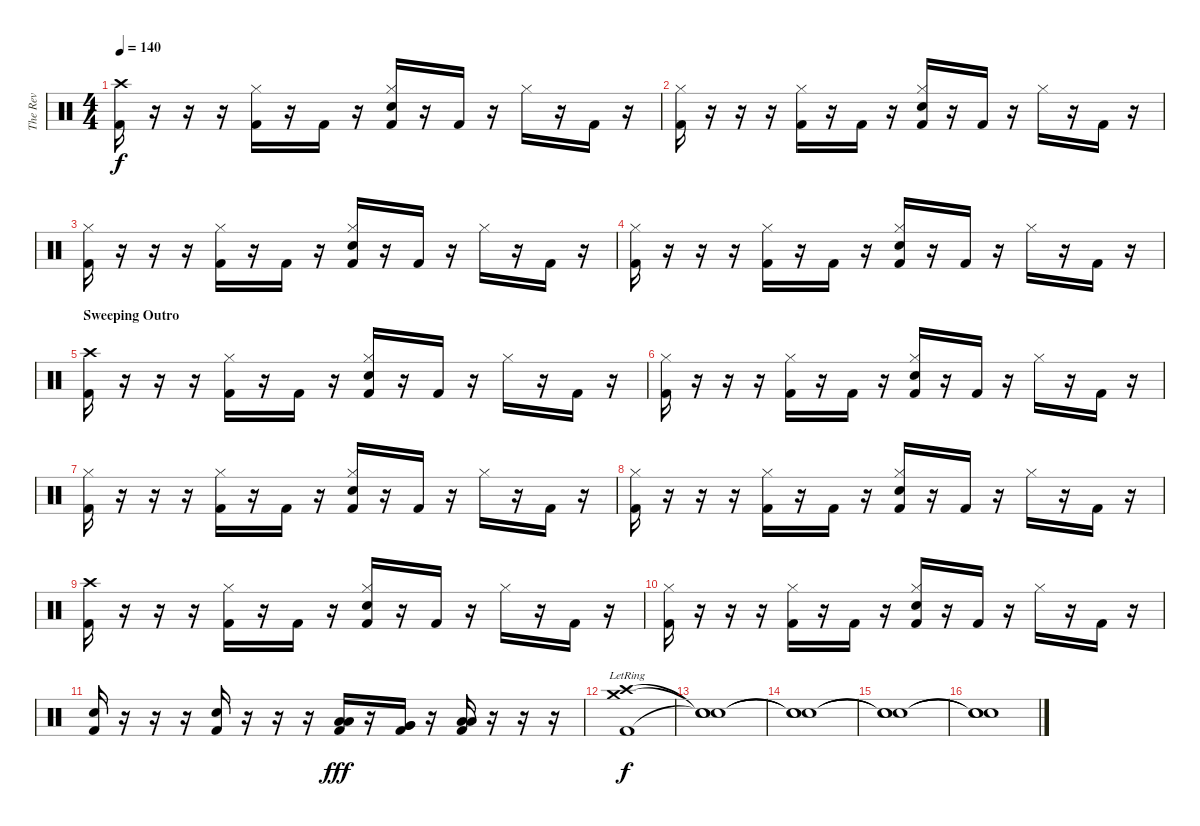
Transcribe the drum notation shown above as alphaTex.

\track ("The Rev" "The Rev") {instrument percussion}
\staff {score}
\articulation defaults
\ts (4 4)
\tempo 140
\clef neutral
\ks c
("Crash high (hit)" "Kick (hit) 2").16{dy f} r.16 r.16 r.16 ("Hi-Hat (closed)" "Kick (hit) 2").16 r.16 "Kick (hit) 2".16 r.16 ("Hi-Hat (closed)" "Electric Snare (hit)" "Kick (hit) 2").16 r.16 "Kick (hit) 2".16 r.16 "Hi-Hat (closed)".16 r.16 "Kick (hit) 2".16 r.16 |
("Hi-Hat (closed)" "Kick (hit) 2").16 r.16 r.16 r.16 ("Hi-Hat (closed)" "Kick (hit) 2").16 r.16 "Kick (hit) 2".16 r.16 ("Hi-Hat (closed)" "Electric Snare (hit)" "Kick (hit) 2").16 r.16 "Kick (hit) 2".16 r.16 "Hi-Hat (closed)".16 r.16 "Kick (hit) 2".16 r.16 |
("Hi-Hat (closed)" "Kick (hit) 2").16 r.16 r.16 r.16 ("Hi-Hat (closed)" "Kick (hit) 2").16 r.16 "Kick (hit) 2".16 r.16 ("Hi-Hat (closed)" "Electric Snare (hit)" "Kick (hit) 2").16 r.16 "Kick (hit) 2".16 r.16 "Hi-Hat (closed)".16 r.16 "Kick (hit) 2".16 r.16 |
("Hi-Hat (closed)" "Kick (hit) 2").16 r.16 r.16 r.16 ("Hi-Hat (closed)" "Kick (hit) 2").16 r.16 "Kick (hit) 2".16 r.16 ("Hi-Hat (closed)" "Electric Snare (hit)" "Kick (hit) 2").16 r.16 "Kick (hit) 2".16 r.16 "Hi-Hat (closed)".16 r.16 "Kick (hit) 2".16 r.16 |
\section ("" "Sweeping Outro")
("Crash high (hit)" "Kick (hit) 2").16 r.16 r.16 r.16 ("Hi-Hat (closed)" "Kick (hit) 2").16 r.16 "Kick (hit) 2".16 r.16 ("Hi-Hat (closed)" "Electric Snare (hit)" "Kick (hit) 2").16 r.16 "Kick (hit) 2".16 r.16 "Hi-Hat (closed)".16 r.16 "Kick (hit) 2".16 r.16 |
("Hi-Hat (closed)" "Kick (hit) 2").16 r.16 r.16 r.16 ("Hi-Hat (closed)" "Kick (hit) 2").16 r.16 "Kick (hit) 2".16 r.16 ("Hi-Hat (closed)" "Electric Snare (hit)" "Kick (hit) 2").16 r.16 "Kick (hit) 2".16 r.16 "Hi-Hat (closed)".16 r.16 "Kick (hit) 2".16 r.16 |
("Hi-Hat (closed)" "Kick (hit) 2").16 r.16 r.16 r.16 ("Hi-Hat (closed)" "Kick (hit) 2").16 r.16 "Kick (hit) 2".16 r.16 ("Hi-Hat (closed)" "Electric Snare (hit)" "Kick (hit) 2").16 r.16 "Kick (hit) 2".16 r.16 "Hi-Hat (closed)".16 r.16 "Kick (hit) 2".16 r.16 |
("Hi-Hat (closed)" "Kick (hit) 2").16 r.16 r.16 r.16 ("Hi-Hat (closed)" "Kick (hit) 2").16 r.16 "Kick (hit) 2".16 r.16 ("Hi-Hat (closed)" "Electric Snare (hit)" "Kick (hit) 2").16 r.16 "Kick (hit) 2".16 r.16 "Hi-Hat (closed)".16 r.16 "Kick (hit) 2".16 r.16 |
("Crash high (hit)" "Kick (hit) 2").16 r.16 r.16 r.16 ("Hi-Hat (closed)" "Kick (hit) 2").16 r.16 "Kick (hit) 2".16 r.16 ("Hi-Hat (closed)" "Electric Snare (hit)" "Kick (hit) 2").16 r.16 "Kick (hit) 2".16 r.16 "Hi-Hat (closed)".16 r.16 "Kick (hit) 2".16 r.16 |
("Hi-Hat (closed)" "Kick (hit) 2").16 r.16 r.16 r.16 ("Hi-Hat (closed)" "Kick (hit) 2").16 r.16 "Kick (hit) 2".16 r.16 ("Hi-Hat (closed)" "Electric Snare (hit)" "Kick (hit) 2").16 r.16 "Kick (hit) 2".16 r.16 "Hi-Hat (closed)".16 r.16 "Kick (hit) 2".16 r.16 |
("Electric Snare (hit)" "Kick (hit) 2").16 r.16 r.16 r.16 ("Electric Snare (hit)" "Kick (hit) 2").16 r.16 r.16 r.16 ("Low Tom (hit)" "Low Tom (hit)" "Kick (hit) 2").16{dy fff} r.16 ("Very Low Tom (hit)" "Very Low Tom (hit)" "Kick (hit) 2").16 r.16 ("Low Floor Tom (hit)" "Low Floor Tom (hit)" "Kick (hit) 2").16 r.16 r.16 r.16 |
("Crash medium (hit)"{lr} "Crash high (hit)"{lr} "Kick (hit) 2").1{dy f} |
("Snare (hit)"{t} "Snare (hit)"{t} "Snare (hit)"{t}).1 |
("Snare (hit)"{t} "Snare (hit)"{t} "Snare (hit)"{t}).1 |
("Snare (hit)"{t} "Snare (hit)"{t} "Snare (hit)"{t}).1 |
("Snare (hit)"{t} "Snare (hit)"{t} "Snare (hit)"{t}).1
